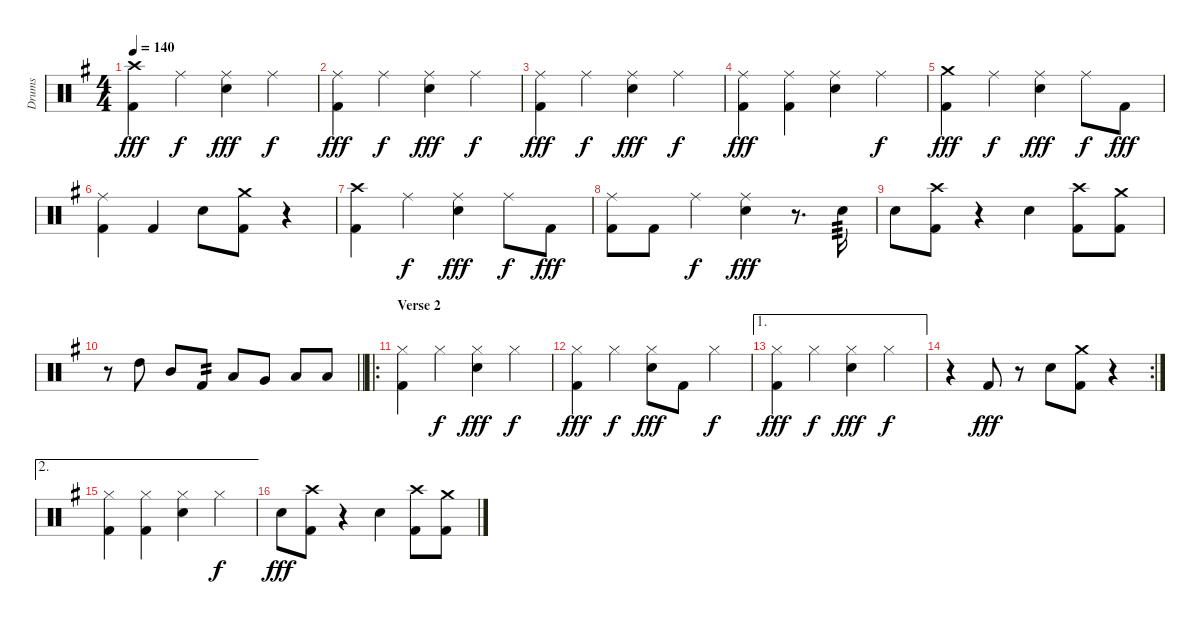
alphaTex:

\track ("Drums" "Drums") {instrument percussion}
\staff {score}
\articulation defaults
\ts (4 4)
\tempo 140
\clef neutral
\ks eminor
("Crash high (hit)" "Kick (hit) 2").4{dy fff} "Ride (middle)".4{dy f} ("Electric Snare (hit)" "Ride (middle)").4{dy fff} "Ride (middle)".4{dy f} |
("Ride (middle)" "Kick (hit) 2").4{dy fff} "Ride (middle)".4{dy f} ("Electric Snare (hit)" "Ride (middle)").4{dy fff} "Ride (middle)".4{dy f} |
("Ride (middle)" "Kick (hit) 2").4{dy fff} "Ride (middle)".4{dy f} ("Electric Snare (hit)" "Ride (middle)").4{dy fff} "Ride (middle)".4{dy f} |
("Ride (middle)" "Kick (hit) 2").4{dy fff} ("Ride (middle)" "Kick (hit) 2").4 ("Electric Snare (hit)" "Ride (middle)").4 "Ride (middle)".4{dy f} |
("Crash medium (hit)" "Kick (hit) 2").4{dy fff} "Ride (middle)".4{dy f} ("Electric Snare (hit)" "Ride (middle)").4{dy fff} "Ride (middle)".8{dy f} "Kick (hit) 2".8{dy fff} |
("Ride (middle)" "Kick (hit) 2").4 "Kick (hit) 2".4 "Electric Snare (hit)".8 ("Crash medium (hit)" "Kick (hit) 2").8 r.4 |
("Crash high (hit)" "Kick (hit) 2").4 "Ride (middle)".4{dy f} ("Electric Snare (hit)" "Ride (middle)").4{dy fff} "Ride (middle)".8{dy f} "Kick (hit) 2".8{dy fff} |
("Ride (middle)" "Kick (hit) 2").8 "Kick (hit) 2".8 "Ride (middle)".4{dy f} ("Electric Snare (hit)" "Ride (middle)").4{dy fff} r.8{d} "Electric Snare (hit)".16{tp 3} |
"Electric Snare (hit)".8 ("Crash high (hit)" "Kick (hit) 2").8 r.4 "Electric Snare (hit)".4 ("Crash high (hit)" "Kick (hit) 2").8 ("Crash medium (hit)" "Kick (hit) 2").8 |
\barLineRight lightlight
r.8 "High Tom (hit)".8 "Mid Tom (hit)".8 "Kick (hit) 2".8{tp 2} "Low Tom (hit)".8 "Very Low Tom (hit)".8 "Low Floor Tom (hit)".8 "Low Floor Tom (hit)".8 |
\ro
\section ("" "Verse 2")
("Hi-Hat (closed)" "Kick (hit) 2").4 "Hi-Hat (closed)".4{dy f} ("Electric Snare (hit)" "Hi-Hat (closed)").4{dy fff} "Hi-Hat (closed)".4{dy f} |
("Hi-Hat (closed)" "Kick (hit) 2").4{dy fff} "Hi-Hat (closed)".4{dy f} ("Electric Snare (hit)" "Hi-Hat (closed)").8{dy fff} "Kick (hit) 2".8 "Hi-Hat (closed)".4{dy f} |
\ae 1
("Hi-Hat (closed)" "Kick (hit) 2").4{dy fff} "Hi-Hat (closed)".4{dy f} ("Electric Snare (hit)" "Hi-Hat (closed)").4{dy fff} "Hi-Hat (closed)".4{dy f} |
\rc 2
r.4 "Kick (hit) 2".8{dy fff} r.8 "Electric Snare (hit)".8 ("Crash medium (hit)" "Kick (hit) 2").8 r.4 |
\ae 2
("Hi-Hat (closed)" "Kick (hit) 2").4 ("Hi-Hat (closed)" "Kick (hit) 2").4 ("Electric Snare (hit)" "Hi-Hat (closed)").4 "Hi-Hat (closed)".4{dy f} |
"Electric Snare (hit)".8{dy fff} ("Crash high (hit)" "Kick (hit) 2").8 r.4 "Electric Snare (hit)".4 ("Crash high (hit)" "Kick (hit) 2").8 ("Crash medium (hit)" "Kick (hit) 2").8
